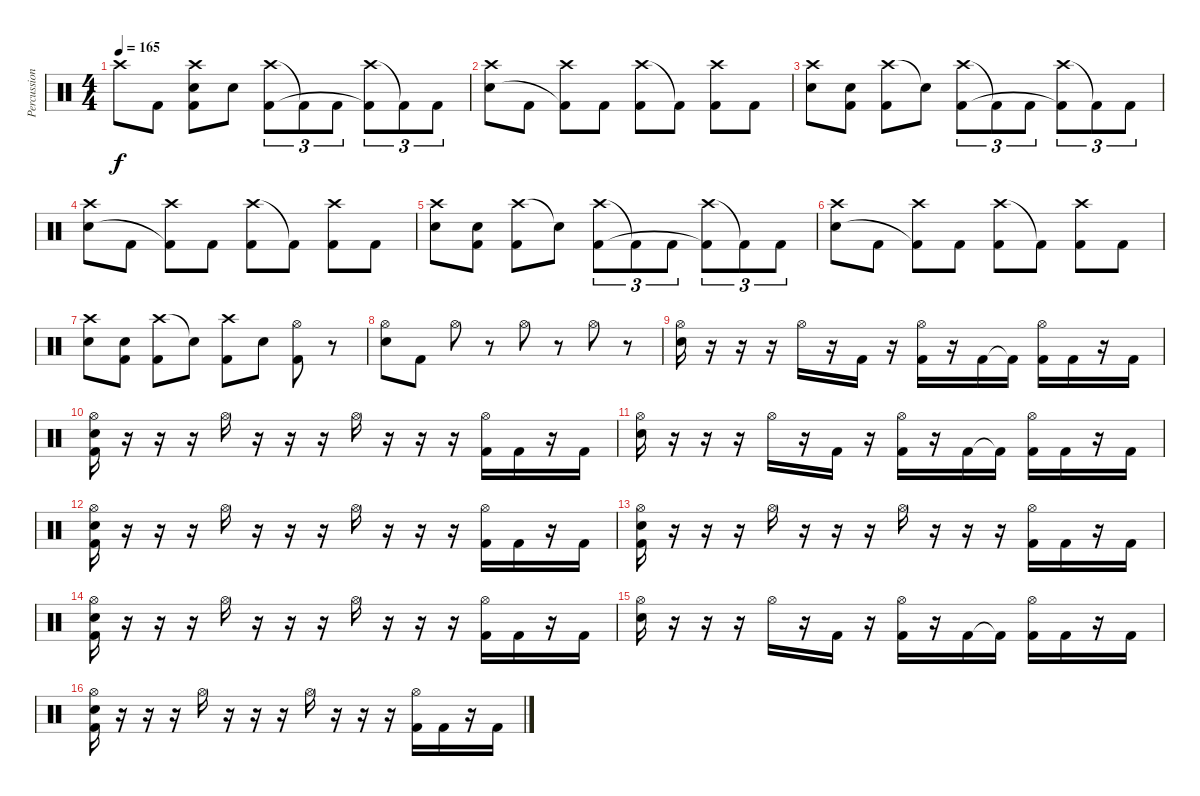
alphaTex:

\track ("Percussion" "Percussion") {instrument percussion}
\staff {score}
\articulation defaults
\ts (4 4)
\tempo 165
\clef neutral
\ks c "Crash high (hit)".8{dy f} "Kick (hit) 2".8
("Electric Snare (hit)" "Crash high (hit)" "Kick (hit) 2").8 "Electric Snare (hit)".8 ("Crash high (hit)" "Kick (hit) 2").8{tu (3 2)} "Kick (hit) 2"{t}.8{tu (3 2)} "Kick (hit) 2".8{tu (3 2)} ("Crash high (hit)" "Kick (hit) 2"{t}).8{tu (3 2)} "Kick (hit) 2"{t}.8{tu (3 2)} "Kick (hit) 2".8{tu (3 2)} |
("Crash high (hit)" "Electric Snare (hit)").8 "Kick (hit) 2".8 ("Crash high (hit)" "Kick (hit) 2"{t}).8 "Kick (hit) 2".8 ("Crash high (hit)" "Kick (hit) 2").8 "Kick (hit) 2"{t}.8 ("Crash high (hit)" "Kick (hit) 2").8 "Kick (hit) 2".8 |
("Crash high (hit)" "Electric Snare (hit)").8 ("Electric Snare (hit)" "Kick (hit) 2").8 ("Crash high (hit)" "Kick (hit) 2").8 "Electric Snare (hit)"{t}.8 ("Crash high (hit)" "Kick (hit) 2").8{tu (3 2)} "Kick (hit) 2"{t}.8{tu (3 2)} "Kick (hit) 2".8{tu (3 2)} ("Crash high (hit)" "Kick (hit) 2"{t}).8{tu (3 2)} "Kick (hit) 2"{t}.8{tu (3 2)} "Kick (hit) 2".8{tu (3 2)} |
("Crash high (hit)" "Electric Snare (hit)").8 "Kick (hit) 2".8 ("Crash high (hit)" "Kick (hit) 2"{t}).8 "Kick (hit) 2".8 ("Crash high (hit)" "Kick (hit) 2").8 "Kick (hit) 2"{t}.8 ("Crash high (hit)" "Kick (hit) 2").8 "Kick (hit) 2".8 |
("Crash high (hit)" "Electric Snare (hit)").8 ("Electric Snare (hit)" "Kick (hit) 2").8 ("Crash high (hit)" "Kick (hit) 2").8 "Electric Snare (hit)"{t}.8 ("Crash high (hit)" "Kick (hit) 2").8{tu (3 2)} "Kick (hit) 2"{t}.8{tu (3 2)} "Kick (hit) 2".8{tu (3 2)} ("Crash high (hit)" "Kick (hit) 2"{t}).8{tu (3 2)} "Kick (hit) 2"{t}.8{tu (3 2)} "Kick (hit) 2".8{tu (3 2)} |
("Crash high (hit)" "Electric Snare (hit)").8 "Kick (hit) 2".8 ("Crash high (hit)" "Kick (hit) 2"{t}).8 "Kick (hit) 2".8 ("Crash high (hit)" "Kick (hit) 2").8 "Kick (hit) 2"{t}.8 ("Crash high (hit)" "Kick (hit) 2").8 "Kick (hit) 2".8 |
("Crash high (hit)" "Electric Snare (hit)").8 ("Electric Snare (hit)" "Kick (hit) 2").8 ("Crash high (hit)" "Kick (hit) 2").8 "Electric Snare (hit)"{t}.8 ("Crash high (hit)" "Kick (hit) 2").8 "Electric Snare (hit)".8 ("Hi-Hat (open)" "Kick (hit) 2").8 r.8 |
("Hi-Hat (open)" "Electric Snare (hit)").8 "Kick (hit) 2".8 "Hi-Hat (open)".8 r.8 "Hi-Hat (open)".8 r.8 "Hi-Hat (open)".8 r.8 |
("Hi-Hat (open)" "Electric Snare (hit)").16 r.16 r.16 r.16 "Hi-Hat (open)".16 r.16 "Kick (hit) 2".16 r.16 ("Hi-Hat (open)" "Kick (hit) 2").16 r.16 "Kick (hit) 2".16 "Kick (hit) 2"{t}.16 ("Hi-Hat (open)" "Kick (hit) 2").16 "Kick (hit) 2".16 r.16 "Kick (hit) 2".16 |
("Hi-Hat (open)" "Electric Snare (hit)" "Kick (hit) 2").16 r.16 r.16 r.16 "Hi-Hat (open)".16 r.16 r.16 r.16 "Hi-Hat (open)".16 r.16 r.16 r.16 ("Hi-Hat (open)" "Kick (hit) 2").16 "Kick (hit) 2".16 r.16 "Kick (hit) 2".16 |
("Hi-Hat (open)" "Electric Snare (hit)").16 r.16 r.16 r.16 "Hi-Hat (open)".16 r.16 "Kick (hit) 2".16 r.16 ("Hi-Hat (open)" "Kick (hit) 2").16 r.16 "Kick (hit) 2".16 "Kick (hit) 2"{t}.16 ("Hi-Hat (open)" "Kick (hit) 2").16 "Kick (hit) 2".16 r.16 "Kick (hit) 2".16 |
("Hi-Hat (open)" "Electric Snare (hit)" "Kick (hit) 2").16 r.16 r.16 r.16 "Hi-Hat (open)".16 r.16 r.16 r.16 "Hi-Hat (open)".16 r.16 r.16 r.16 ("Hi-Hat (open)" "Kick (hit) 2").16 "Kick (hit) 2".16 r.16 "Kick (hit) 2".16 |
("Hi-Hat (open)" "Electric Snare (hit)" "Kick (hit) 2").16 r.16 r.16 r.16 "Hi-Hat (open)".16 r.16 r.16 r.16 "Hi-Hat (open)".16 r.16 r.16 r.16 ("Hi-Hat (open)" "Kick (hit) 2").16 "Kick (hit) 2".16 r.16 "Kick (hit) 2".16 |
("Hi-Hat (open)" "Electric Snare (hit)" "Kick (hit) 2").16 r.16 r.16 r.16 "Hi-Hat (open)".16 r.16 r.16 r.16 "Hi-Hat (open)".16 r.16 r.16 r.16 ("Hi-Hat (open)" "Kick (hit) 2").16 "Kick (hit) 2".16 r.16 "Kick (hit) 2".16 |
("Hi-Hat (open)" "Electric Snare (hit)").16 r.16 r.16 r.16 "Hi-Hat (open)".16 r.16 "Kick (hit) 2".16 r.16 ("Hi-Hat (open)" "Kick (hit) 2").16 r.16 "Kick (hit) 2".16 "Kick (hit) 2"{t}.16 ("Hi-Hat (open)" "Kick (hit) 2").16 "Kick (hit) 2".16 r.16 "Kick (hit) 2".16 |
("Hi-Hat (open)" "Electric Snare (hit)" "Kick (hit) 2").16 r.16 r.16 r.16 "Hi-Hat (open)".16 r.16 r.16 r.16 "Hi-Hat (open)".16 r.16 r.16 r.16 ("Hi-Hat (open)" "Kick (hit) 2").16 "Kick (hit) 2".16 r.16 "Kick (hit) 2".16
